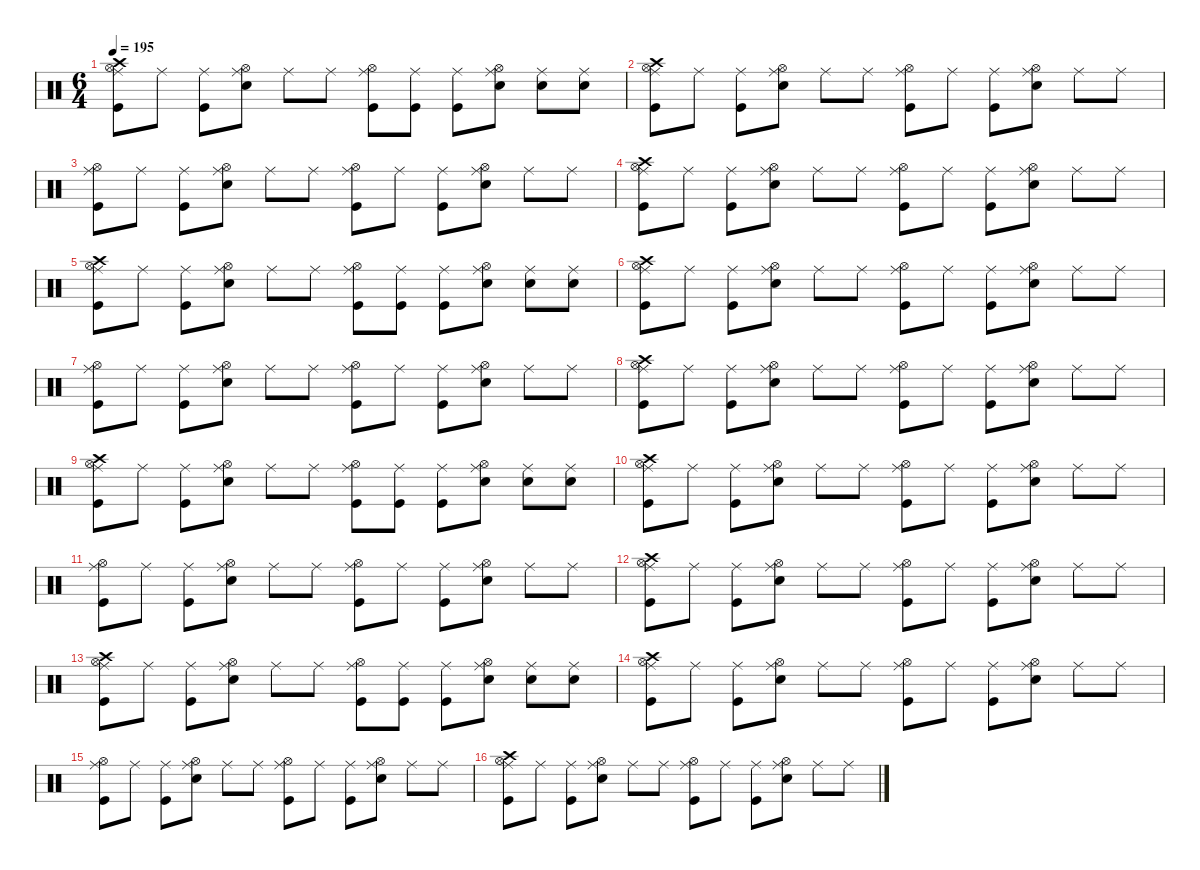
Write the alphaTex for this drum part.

\defaultSystemsLayout 4
\hideDynamics
\bracketExtendMode nobrackets
\singleTrackTrackNamePolicy hidden
\multiTrackTrackNamePolicy hidden
\firstSystemTrackNameMode fullname
\firstSystemTrackNameOrientation horizontal
\otherSystemsTrackNameOrientation horizontal
\track ("Percussion" "drm.") {instrument percussion}
\staff {score}
\articulation defaults
\ts (6 4)
\tempo 195
\clef neutral
\ks c
("Crash high (hit)" "Ride (middle)" "Hi-Hat (open)" "Kick (hit)").8{dy f beam Down} "Ride (middle)".8{beam Down} ("Ride (middle)" "Kick (hit)").8{beam Down} ("Ride (middle)" "Snare (hit) 2" "Hi-Hat (open)").8{beam Down} "Ride (middle)".8{beam Down} "Ride (middle)".8{beam Down} ("Ride (middle)" "Hi-Hat (open)" "Kick (hit)").8{beam Down} ("Ride (middle)" "Kick (hit)").8{beam Down} ("Ride (middle)" "Kick (hit)").8{beam Down} ("Ride (middle)" "Snare (hit) 2" "Hi-Hat (open)").8{beam Down} ("Ride (middle)" "Snare (hit) 2").8{beam Down} ("Ride (middle)" "Snare (hit) 2").8{beam Down} |
("Crash high (hit)" "Ride (middle)" "Hi-Hat (open)" "Kick (hit)").8{beam Down} "Ride (middle)".8{beam Down} ("Ride (middle)" "Kick (hit)").8{beam Down} ("Ride (middle)" "Snare (hit) 2" "Hi-Hat (open)").8{beam Down} "Ride (middle)".8{beam Down} "Ride (middle)".8{beam Down} ("Ride (middle)" "Hi-Hat (open)" "Kick (hit)").8{beam Down} "Ride (middle)".8{beam Down} ("Ride (middle)" "Kick (hit)").8{beam Down} ("Ride (middle)" "Snare (hit) 2" "Hi-Hat (open)").8{beam Down} "Ride (middle)".8{beam Down} "Ride (middle)".8{beam Down} |
("Ride (middle)" "Hi-Hat (open)" "Kick (hit)").8{beam Down} "Ride (middle)".8{beam Down} ("Ride (middle)" "Kick (hit)").8{beam Down} ("Ride (middle)" "Snare (hit) 2" "Hi-Hat (open)").8{beam Down} "Ride (middle)".8{beam Down} "Ride (middle)".8{beam Down} ("Ride (middle)" "Hi-Hat (open)" "Kick (hit)").8{beam Down} "Ride (middle)".8{beam Down} ("Ride (middle)" "Kick (hit)").8{beam Down} ("Ride (middle)" "Snare (hit) 2" "Hi-Hat (open)").8{beam Down} "Ride (middle)".8{beam Down} "Ride (middle)".8{beam Down} |
("Crash high (hit)" "Ride (middle)" "Hi-Hat (open)" "Kick (hit)").8{beam Down} "Ride (middle)".8{beam Down} ("Ride (middle)" "Kick (hit)").8{beam Down} ("Ride (middle)" "Snare (hit) 2" "Hi-Hat (open)").8{beam Down} "Ride (middle)".8{beam Down} "Ride (middle)".8{beam Down} ("Ride (middle)" "Hi-Hat (open)" "Kick (hit)").8{beam Down} "Ride (middle)".8{beam Down} ("Ride (middle)" "Kick (hit)").8{beam Down} ("Ride (middle)" "Snare (hit) 2" "Hi-Hat (open)").8{beam Down} "Ride (middle)".8{beam Down} "Ride (middle)".8{beam Down} |
("Crash high (hit)" "Ride (middle)" "Hi-Hat (open)" "Kick (hit)").8{beam Down} "Ride (middle)".8{beam Down} ("Ride (middle)" "Kick (hit)").8{beam Down} ("Ride (middle)" "Snare (hit) 2" "Hi-Hat (open)").8{beam Down} "Ride (middle)".8{beam Down} "Ride (middle)".8{beam Down} ("Ride (middle)" "Hi-Hat (open)" "Kick (hit)").8{beam Down} ("Ride (middle)" "Kick (hit)").8{beam Down} ("Ride (middle)" "Kick (hit)").8{beam Down} ("Ride (middle)" "Snare (hit) 2" "Hi-Hat (open)").8{beam Down} ("Ride (middle)" "Snare (hit) 2").8{beam Down} ("Ride (middle)" "Snare (hit) 2").8{beam Down} |
("Crash high (hit)" "Ride (middle)" "Hi-Hat (open)" "Kick (hit)").8{beam Down} "Ride (middle)".8{beam Down} ("Ride (middle)" "Kick (hit)").8{beam Down} ("Ride (middle)" "Snare (hit) 2" "Hi-Hat (open)").8{beam Down} "Ride (middle)".8{beam Down} "Ride (middle)".8{beam Down} ("Ride (middle)" "Hi-Hat (open)" "Kick (hit)").8{beam Down} "Ride (middle)".8{beam Down} ("Ride (middle)" "Kick (hit)").8{beam Down} ("Ride (middle)" "Snare (hit) 2" "Hi-Hat (open)").8{beam Down} "Ride (middle)".8{beam Down} "Ride (middle)".8{beam Down} |
("Ride (middle)" "Hi-Hat (open)" "Kick (hit)").8{beam Down} "Ride (middle)".8{beam Down} ("Ride (middle)" "Kick (hit)").8{beam Down} ("Ride (middle)" "Snare (hit) 2" "Hi-Hat (open)").8{beam Down} "Ride (middle)".8{beam Down} "Ride (middle)".8{beam Down} ("Ride (middle)" "Hi-Hat (open)" "Kick (hit)").8{beam Down} "Ride (middle)".8{beam Down} ("Ride (middle)" "Kick (hit)").8{beam Down} ("Ride (middle)" "Snare (hit) 2" "Hi-Hat (open)").8{beam Down} "Ride (middle)".8{beam Down} "Ride (middle)".8{beam Down} |
("Crash high (hit)" "Ride (middle)" "Hi-Hat (open)" "Kick (hit)").8{beam Down} "Ride (middle)".8{beam Down} ("Ride (middle)" "Kick (hit)").8{beam Down} ("Ride (middle)" "Snare (hit) 2" "Hi-Hat (open)").8{beam Down} "Ride (middle)".8{beam Down} "Ride (middle)".8{beam Down} ("Ride (middle)" "Hi-Hat (open)" "Kick (hit)").8{beam Down} "Ride (middle)".8{beam Down} ("Ride (middle)" "Kick (hit)").8{beam Down} ("Ride (middle)" "Snare (hit) 2" "Hi-Hat (open)").8{beam Down} "Ride (middle)".8{beam Down} "Ride (middle)".8{beam Down} |
("Crash high (hit)" "Ride (middle)" "Hi-Hat (open)" "Kick (hit)").8{beam Down} "Ride (middle)".8{beam Down} ("Ride (middle)" "Kick (hit)").8{beam Down} ("Ride (middle)" "Snare (hit) 2" "Hi-Hat (open)").8{beam Down} "Ride (middle)".8{beam Down} "Ride (middle)".8{beam Down} ("Ride (middle)" "Hi-Hat (open)" "Kick (hit)").8{beam Down} ("Ride (middle)" "Kick (hit)").8{beam Down} ("Ride (middle)" "Kick (hit)").8{beam Down} ("Ride (middle)" "Snare (hit) 2" "Hi-Hat (open)").8{beam Down} ("Ride (middle)" "Snare (hit) 2").8{beam Down} ("Ride (middle)" "Snare (hit) 2").8{beam Down} |
("Crash high (hit)" "Ride (middle)" "Hi-Hat (open)" "Kick (hit)").8{beam Down} "Ride (middle)".8{beam Down} ("Ride (middle)" "Kick (hit)").8{beam Down} ("Ride (middle)" "Snare (hit) 2" "Hi-Hat (open)").8{beam Down} "Ride (middle)".8{beam Down} "Ride (middle)".8{beam Down} ("Ride (middle)" "Hi-Hat (open)" "Kick (hit)").8{beam Down} "Ride (middle)".8{beam Down} ("Ride (middle)" "Kick (hit)").8{beam Down} ("Ride (middle)" "Snare (hit) 2" "Hi-Hat (open)").8{beam Down} "Ride (middle)".8{beam Down} "Ride (middle)".8{beam Down} |
("Ride (middle)" "Hi-Hat (open)" "Kick (hit)").8{beam Down} "Ride (middle)".8{beam Down} ("Ride (middle)" "Kick (hit)").8{beam Down} ("Ride (middle)" "Snare (hit) 2" "Hi-Hat (open)").8{beam Down} "Ride (middle)".8{beam Down} "Ride (middle)".8{beam Down} ("Ride (middle)" "Hi-Hat (open)" "Kick (hit)").8{beam Down} "Ride (middle)".8{beam Down} ("Ride (middle)" "Kick (hit)").8{beam Down} ("Ride (middle)" "Snare (hit) 2" "Hi-Hat (open)").8{beam Down} "Ride (middle)".8{beam Down} "Ride (middle)".8{beam Down} |
("Crash high (hit)" "Ride (middle)" "Hi-Hat (open)" "Kick (hit)").8{beam Down} "Ride (middle)".8{beam Down} ("Ride (middle)" "Kick (hit)").8{beam Down} ("Ride (middle)" "Snare (hit) 2" "Hi-Hat (open)").8{beam Down} "Ride (middle)".8{beam Down} "Ride (middle)".8{beam Down} ("Ride (middle)" "Hi-Hat (open)" "Kick (hit)").8{beam Down} "Ride (middle)".8{beam Down} ("Ride (middle)" "Kick (hit)").8{beam Down} ("Ride (middle)" "Snare (hit) 2" "Hi-Hat (open)").8{beam Down} "Ride (middle)".8{beam Down} "Ride (middle)".8{beam Down} |
("Crash high (hit)" "Ride (middle)" "Hi-Hat (open)" "Kick (hit)").8{beam Down} "Ride (middle)".8{beam Down} ("Ride (middle)" "Kick (hit)").8{beam Down} ("Ride (middle)" "Snare (hit) 2" "Hi-Hat (open)").8{beam Down} "Ride (middle)".8{beam Down} "Ride (middle)".8{beam Down} ("Ride (middle)" "Hi-Hat (open)" "Kick (hit)").8{beam Down} ("Ride (middle)" "Kick (hit)").8{beam Down} ("Ride (middle)" "Kick (hit)").8{beam Down} ("Ride (middle)" "Snare (hit) 2" "Hi-Hat (open)").8{beam Down} ("Ride (middle)" "Snare (hit) 2").8{beam Down} ("Ride (middle)" "Snare (hit) 2").8{beam Down} |
("Crash high (hit)" "Ride (middle)" "Hi-Hat (open)" "Kick (hit)").8{beam Down} "Ride (middle)".8{beam Down} ("Ride (middle)" "Kick (hit)").8{beam Down} ("Ride (middle)" "Snare (hit) 2" "Hi-Hat (open)").8{beam Down} "Ride (middle)".8{beam Down} "Ride (middle)".8{beam Down} ("Ride (middle)" "Hi-Hat (open)" "Kick (hit)").8{beam Down} "Ride (middle)".8{beam Down} ("Ride (middle)" "Kick (hit)").8{beam Down} ("Ride (middle)" "Snare (hit) 2" "Hi-Hat (open)").8{beam Down} "Ride (middle)".8{beam Down} "Ride (middle)".8{beam Down} |
("Ride (middle)" "Hi-Hat (open)" "Kick (hit)").8{beam Down} "Ride (middle)".8{beam Down} ("Ride (middle)" "Kick (hit)").8{beam Down} ("Ride (middle)" "Snare (hit) 2" "Hi-Hat (open)").8{beam Down} "Ride (middle)".8{beam Down} "Ride (middle)".8{beam Down} ("Ride (middle)" "Hi-Hat (open)" "Kick (hit)").8{beam Down} "Ride (middle)".8{beam Down} ("Ride (middle)" "Kick (hit)").8{beam Down} ("Ride (middle)" "Snare (hit) 2" "Hi-Hat (open)").8{beam Down} "Ride (middle)".8{beam Down} "Ride (middle)".8{beam Down} |
("Crash high (hit)" "Ride (middle)" "Hi-Hat (open)" "Kick (hit)").8{beam Down} "Ride (middle)".8{beam Down} ("Ride (middle)" "Kick (hit)").8{beam Down} ("Ride (middle)" "Snare (hit) 2" "Hi-Hat (open)").8{beam Down} "Ride (middle)".8{beam Down} "Ride (middle)".8{beam Down} ("Ride (middle)" "Hi-Hat (open)" "Kick (hit)").8{beam Down} "Ride (middle)".8{beam Down} ("Ride (middle)" "Kick (hit)").8{beam Down} ("Ride (middle)" "Snare (hit) 2" "Hi-Hat (open)").8{beam Down} "Ride (middle)".8{beam Down} "Ride (middle)".8{beam Down}
